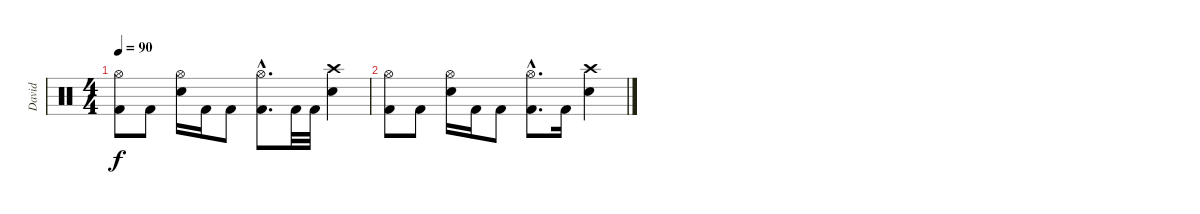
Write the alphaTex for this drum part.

\track ("David" "David") {instrument percussion}
\staff {score}
\articulation defaults
\ts (4 4)
\tempo 90
\clef neutral
\ks c
("Hi-Hat (open)" "Kick (hit) 2").8{dy f} "Kick (hit) 2".8 ("Hi-Hat (open)" "Electric Snare (hit)").16 "Kick (hit) 2".16 "Kick (hit) 2".8 ("Hi-Hat (open)"{hac} "Kick (hit) 2"{hac}).8{d} "Kick (hit) 2".32 "Kick (hit) 2".32 ("Crash high (hit)" "Electric Snare (hit)").4 |
("Hi-Hat (open)" "Kick (hit) 2").8 "Kick (hit) 2".8 ("Hi-Hat (open)" "Electric Snare (hit)").16 "Kick (hit) 2".16 "Kick (hit) 2".8 ("Hi-Hat (open)"{hac} "Kick (hit) 2"{hac}).8{d} "Kick (hit) 2".16 ("Crash high (hit)" "Electric Snare (hit)").4
